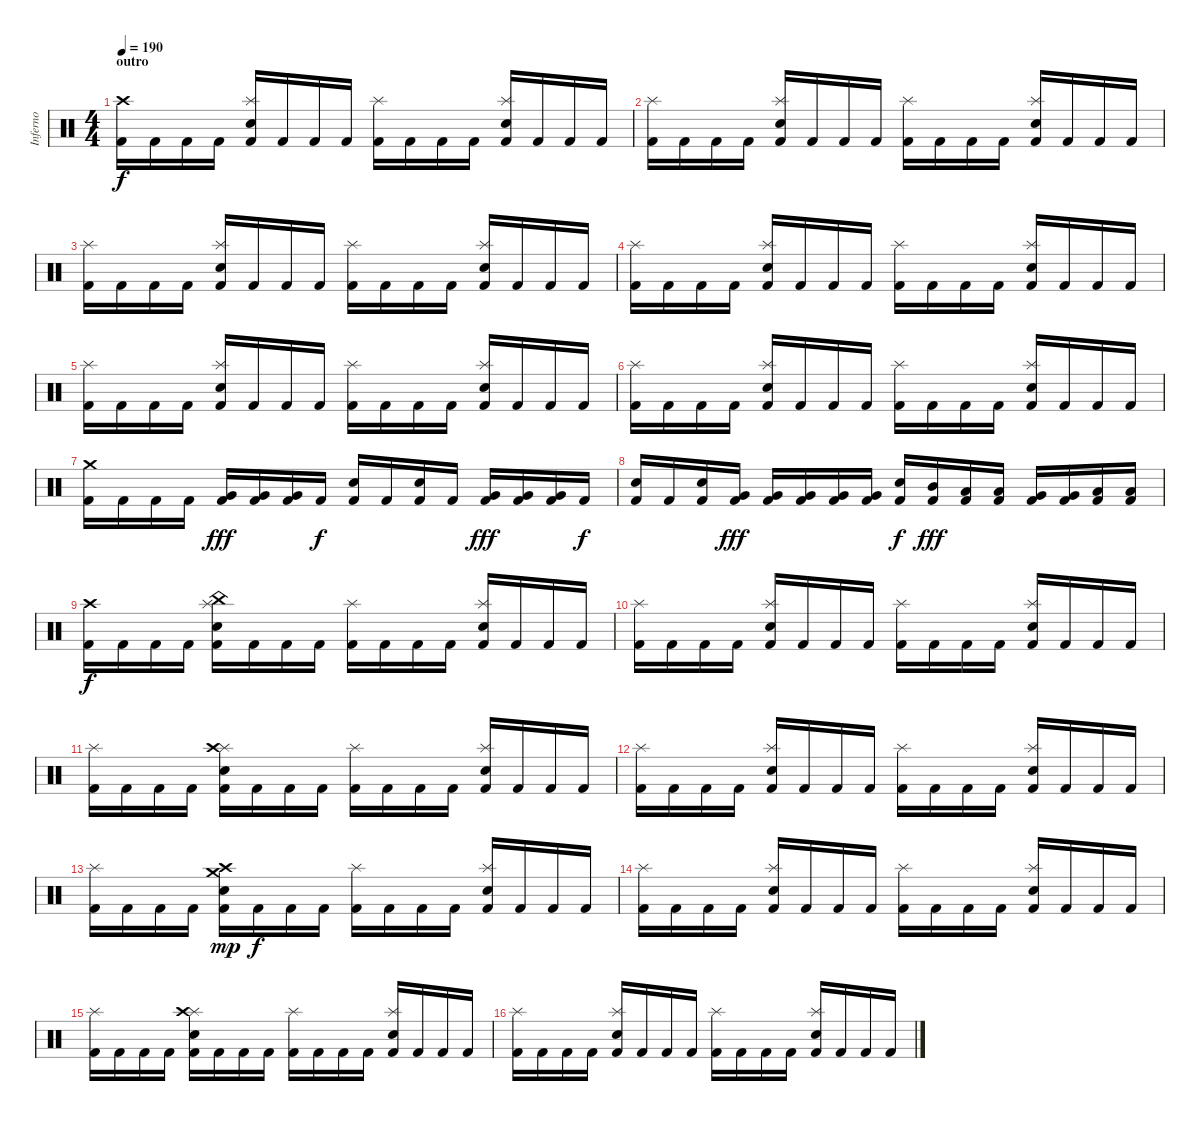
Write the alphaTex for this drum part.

\track ("Inferno" "Inferno") {instrument percussion}
\staff {score}
\articulation defaults
\ts (4 4)
\section ("" "outro")
\tempo 190
\clef neutral
\ks c
("Crash high (hit)" "Kick (hit) 2").16{dy f volume 13} "Kick (hit) 2".16 "Kick (hit) 2".16 "Kick (hit) 2".16 ("Splash (hit)" "Snare (hit) 2" "Kick (hit) 2").16 "Kick (hit) 2".16 "Kick (hit) 2".16 "Kick (hit) 2".16 ("Splash (hit)" "Kick (hit) 2").16 "Kick (hit) 2".16 "Kick (hit) 2".16 "Kick (hit) 2".16 ("Splash (hit)" "Snare (hit) 2" "Kick (hit) 2").16 "Kick (hit) 2".16 "Kick (hit) 2".16 "Kick (hit) 2".16 |
("Splash (hit)" "Kick (hit) 2").16 "Kick (hit) 2".16 "Kick (hit) 2".16 "Kick (hit) 2".16 ("Splash (hit)" "Snare (hit) 2" "Kick (hit) 2").16 "Kick (hit) 2".16 "Kick (hit) 2".16 "Kick (hit) 2".16 ("Splash (hit)" "Kick (hit) 2").16 "Kick (hit) 2".16 "Kick (hit) 2".16 "Kick (hit) 2".16 ("Splash (hit)" "Snare (hit) 2" "Kick (hit) 2").16 "Kick (hit) 2".16 "Kick (hit) 2".16 "Kick (hit) 2".16 |
("Splash (hit)" "Kick (hit) 2").16 "Kick (hit) 2".16 "Kick (hit) 2".16 "Kick (hit) 2".16 ("Splash (hit)" "Snare (hit) 2" "Kick (hit) 2").16 "Kick (hit) 2".16 "Kick (hit) 2".16 "Kick (hit) 2".16 ("Splash (hit)" "Kick (hit) 2").16 "Kick (hit) 2".16 "Kick (hit) 2".16 "Kick (hit) 2".16 ("Splash (hit)" "Snare (hit) 2" "Kick (hit) 2").16 "Kick (hit) 2".16 "Kick (hit) 2".16 "Kick (hit) 2".16 |
("Splash (hit)" "Kick (hit) 2").16 "Kick (hit) 2".16 "Kick (hit) 2".16 "Kick (hit) 2".16 ("Splash (hit)" "Snare (hit) 2" "Kick (hit) 2").16 "Kick (hit) 2".16 "Kick (hit) 2".16 "Kick (hit) 2".16 ("Splash (hit)" "Kick (hit) 2").16 "Kick (hit) 2".16 "Kick (hit) 2".16 "Kick (hit) 2".16 ("Splash (hit)" "Snare (hit) 2" "Kick (hit) 2").16 "Kick (hit) 2".16 "Kick (hit) 2".16 "Kick (hit) 2".16 |
("Splash (hit)" "Kick (hit) 2").16 "Kick (hit) 2".16 "Kick (hit) 2".16 "Kick (hit) 2".16 ("Splash (hit)" "Snare (hit) 2" "Kick (hit) 2").16 "Kick (hit) 2".16 "Kick (hit) 2".16 "Kick (hit) 2".16 ("Splash (hit)" "Kick (hit) 2").16 "Kick (hit) 2".16 "Kick (hit) 2".16 "Kick (hit) 2".16 ("Splash (hit)" "Snare (hit) 2" "Kick (hit) 2").16 "Kick (hit) 2".16 "Kick (hit) 2".16 "Kick (hit) 2".16 |
("Splash (hit)" "Kick (hit) 2").16 "Kick (hit) 2".16 "Kick (hit) 2".16 "Kick (hit) 2".16 ("Splash (hit)" "Snare (hit) 2" "Kick (hit) 2").16 "Kick (hit) 2".16 "Kick (hit) 2".16 "Kick (hit) 2".16 ("Splash (hit)" "Kick (hit) 2").16 "Kick (hit) 2".16 "Kick (hit) 2".16 "Kick (hit) 2".16 ("Splash (hit)" "Snare (hit) 2" "Kick (hit) 2").16 "Kick (hit) 2".16 "Kick (hit) 2".16 "Kick (hit) 2".16 |
("Crash medium (hit)" "Kick (hit) 2").16 "Kick (hit) 2".16 "Kick (hit) 2".16 "Kick (hit) 2".16 ("Very Low Tom (hit)" "Kick (hit) 2").16{dy fff} ("Very Low Tom (hit)" "Kick (hit) 2").16 ("Very Low Tom (hit)" "Kick (hit) 2").16 "Kick (hit) 2".16{dy f} ("Snare (hit) 2" "Kick (hit) 2").16 "Kick (hit) 2".16 ("Snare (hit) 2" "Kick (hit) 2").16 "Kick (hit) 2".16 ("Very Low Tom (hit)" "Kick (hit) 2").16{dy fff} ("Very Low Tom (hit)" "Kick (hit) 2").16 ("Very Low Tom (hit)" "Kick (hit) 2").16 "Kick (hit) 2".16{dy f} |
("Snare (hit) 2" "Kick (hit) 2").16 "Kick (hit) 2".16 ("Snare (hit) 2" "Kick (hit) 2").16 ("Very Low Tom (hit)" "Kick (hit) 2").16{dy fff} ("Very Low Tom (hit)" "Kick (hit) 2").16 ("Very Low Tom (hit)" "Kick (hit) 2").16 ("Very Low Tom (hit)" "Kick (hit) 2").16 ("Very Low Tom (hit)" "Kick (hit) 2").16 ("Snare (hit) 2" "Kick (hit) 2").16{dy f} ("Mid Tom (hit)" "Kick (hit) 2").16{dy fff} ("Low Tom (hit)" "Kick (hit) 2").16 ("Low Tom (hit)" "Kick (hit) 2").16 ("Very Low Tom (hit)" "Kick (hit) 2").16 ("Very Low Tom (hit)" "Kick (hit) 2").16 ("Low Floor Tom (hit)" "Kick (hit) 2").16 ("Low Floor Tom (hit)" "Kick (hit) 2").16 |
("Crash high (hit)" "Kick (hit) 2").16{dy f} "Kick (hit) 2".16 "Kick (hit) 2".16 "Kick (hit) 2".16 ("Splash (hit)" "China (hit)" "Snare (hit) 2" "Kick (hit) 2").16 "Kick (hit) 2".16 "Kick (hit) 2".16 "Kick (hit) 2".16 ("Splash (hit)" "Kick (hit) 2").16 "Kick (hit) 2".16 "Kick (hit) 2".16 "Kick (hit) 2".16 ("Splash (hit)" "Snare (hit) 2" "Kick (hit) 2").16 "Kick (hit) 2".16 "Kick (hit) 2".16 "Kick (hit) 2".16 |
("Splash (hit)" "Kick (hit) 2").16 "Kick (hit) 2".16 "Kick (hit) 2".16 "Kick (hit) 2".16 ("Splash (hit)" "Snare (hit) 2" "Kick (hit) 2").16 "Kick (hit) 2".16 "Kick (hit) 2".16 "Kick (hit) 2".16 ("Splash (hit)" "Kick (hit) 2").16 "Kick (hit) 2".16 "Kick (hit) 2".16 "Kick (hit) 2".16 ("Splash (hit)" "Snare (hit) 2" "Kick (hit) 2").16 "Kick (hit) 2".16 "Kick (hit) 2".16 "Kick (hit) 2".16 |
("Splash (hit)" "Kick (hit) 2").16 "Kick (hit) 2".16 "Kick (hit) 2".16 "Kick (hit) 2".16 ("Splash (hit)" "Crash high (hit)" "Snare (hit) 2" "Kick (hit) 2").16 "Kick (hit) 2".16 "Kick (hit) 2".16 "Kick (hit) 2".16 ("Splash (hit)" "Kick (hit) 2").16 "Kick (hit) 2".16 "Kick (hit) 2".16 "Kick (hit) 2".16 ("Splash (hit)" "Snare (hit) 2" "Kick (hit) 2").16 "Kick (hit) 2".16 "Kick (hit) 2".16 "Kick (hit) 2".16 |
("Splash (hit)" "Kick (hit) 2").16 "Kick (hit) 2".16 "Kick (hit) 2".16 "Kick (hit) 2".16 ("Splash (hit)" "Snare (hit) 2" "Kick (hit) 2").16 "Kick (hit) 2".16 "Kick (hit) 2".16 "Kick (hit) 2".16 ("Splash (hit)" "Kick (hit) 2").16 "Kick (hit) 2".16 "Kick (hit) 2".16 "Kick (hit) 2".16 ("Splash (hit)" "Snare (hit) 2" "Kick (hit) 2").16 "Kick (hit) 2".16 "Kick (hit) 2".16 "Kick (hit) 2".16 |
("Splash (hit)" "Kick (hit) 2").16 "Kick (hit) 2".16 "Kick (hit) 2".16 "Kick (hit) 2".16 ("Crash high (hit)" "Crash medium (hit)" "Snare (hit) 2" "Kick (hit) 2").16{dy mp} "Kick (hit) 2".16{dy f} "Kick (hit) 2".16 "Kick (hit) 2".16 ("Splash (hit)" "Kick (hit) 2").16 "Kick (hit) 2".16 "Kick (hit) 2".16 "Kick (hit) 2".16 ("Splash (hit)" "Snare (hit) 2" "Kick (hit) 2").16 "Kick (hit) 2".16 "Kick (hit) 2".16 "Kick (hit) 2".16 |
("Splash (hit)" "Kick (hit) 2").16 "Kick (hit) 2".16 "Kick (hit) 2".16 "Kick (hit) 2".16 ("Splash (hit)" "Snare (hit) 2" "Kick (hit) 2").16 "Kick (hit) 2".16 "Kick (hit) 2".16 "Kick (hit) 2".16 ("Splash (hit)" "Kick (hit) 2").16 "Kick (hit) 2".16 "Kick (hit) 2".16 "Kick (hit) 2".16 ("Splash (hit)" "Snare (hit) 2" "Kick (hit) 2").16 "Kick (hit) 2".16 "Kick (hit) 2".16 "Kick (hit) 2".16 |
("Splash (hit)" "Kick (hit) 2").16 "Kick (hit) 2".16 "Kick (hit) 2".16 "Kick (hit) 2".16 ("Splash (hit)" "Crash high (hit)" "Snare (hit) 2" "Kick (hit) 2").16 "Kick (hit) 2".16 "Kick (hit) 2".16 "Kick (hit) 2".16 ("Splash (hit)" "Kick (hit) 2").16 "Kick (hit) 2".16 "Kick (hit) 2".16 "Kick (hit) 2".16 ("Splash (hit)" "Snare (hit) 2" "Kick (hit) 2").16 "Kick (hit) 2".16 "Kick (hit) 2".16 "Kick (hit) 2".16 |
("Splash (hit)" "Kick (hit) 2").16 "Kick (hit) 2".16 "Kick (hit) 2".16 "Kick (hit) 2".16 ("Splash (hit)" "Snare (hit) 2" "Kick (hit) 2").16 "Kick (hit) 2".16 "Kick (hit) 2".16 "Kick (hit) 2".16 ("Splash (hit)" "Kick (hit) 2").16 "Kick (hit) 2".16 "Kick (hit) 2".16 "Kick (hit) 2".16 ("Splash (hit)" "Snare (hit) 2" "Kick (hit) 2").16 "Kick (hit) 2".16 "Kick (hit) 2".16 "Kick (hit) 2".16
